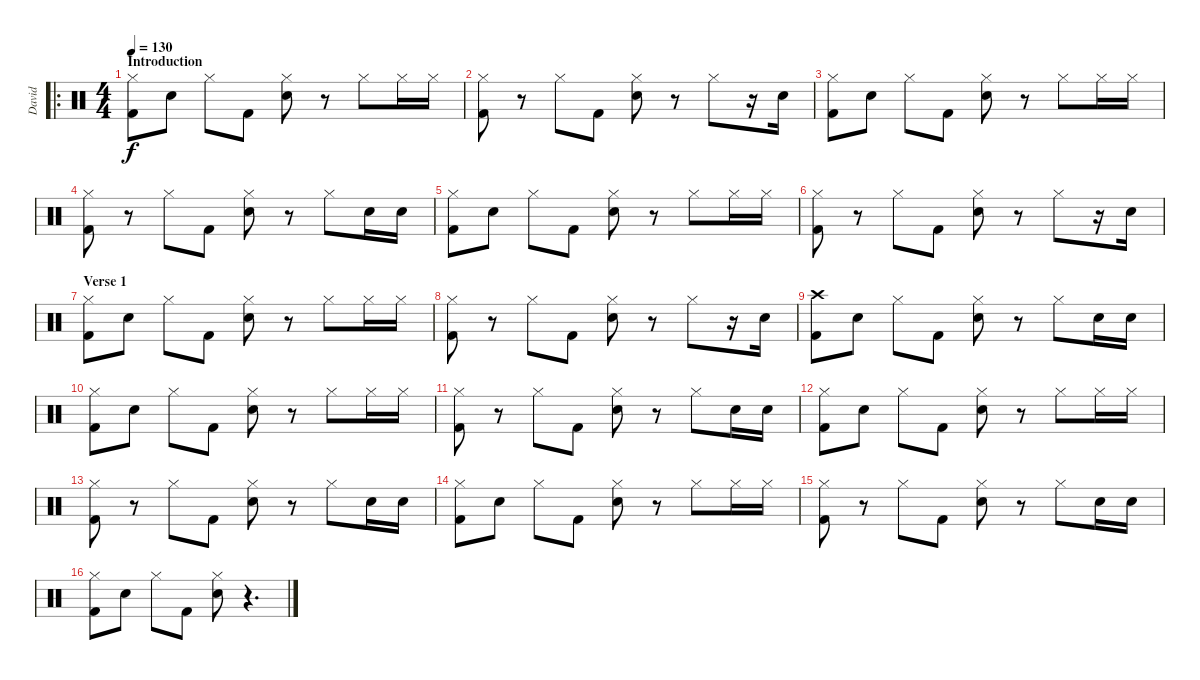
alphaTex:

\track ("David" "David") {instrument percussion}
\staff {score}
\articulation defaults
\ro
\ts (4 4)
\section ("" "Introduction")
\tempo 130
\clef neutral
\ks c
("Hi-Hat (closed)" "Kick (hit) 2").8{dy f} "Snare (hit) 2".8 "Hi-Hat (closed)".8 "Kick (hit) 2".8 ("Hi-Hat (closed)" "Snare (hit) 2").8 r.8 "Hi-Hat (closed)".8 "Hi-Hat (closed)".16 "Hi-Hat (closed)".16 |
("Hi-Hat (closed)" "Kick (hit) 2").8 r.8 "Hi-Hat (closed)".8 "Kick (hit) 2".8 ("Hi-Hat (closed)" "Snare (hit) 2").8 r.8 "Hi-Hat (closed)".8 r.16 "Snare (hit) 2".16 |
("Hi-Hat (closed)" "Kick (hit) 2").8 "Snare (hit) 2".8 "Hi-Hat (closed)".8 "Kick (hit) 2".8 ("Hi-Hat (closed)" "Snare (hit) 2").8 r.8 "Hi-Hat (closed)".8 "Hi-Hat (closed)".16 "Hi-Hat (closed)".16 |
("Hi-Hat (closed)" "Kick (hit) 2").8 r.8 "Hi-Hat (closed)".8 "Kick (hit) 2".8 ("Hi-Hat (closed)" "Snare (hit) 2").8 r.8 "Hi-Hat (closed)".8 "Snare (hit) 2".16 "Snare (hit) 2".16 |
("Hi-Hat (closed)" "Kick (hit) 2").8 "Snare (hit) 2".8 "Hi-Hat (closed)".8 "Kick (hit) 2".8 ("Hi-Hat (closed)" "Snare (hit) 2").8 r.8 "Hi-Hat (closed)".8 "Hi-Hat (closed)".16 "Hi-Hat (closed)".16 |
("Hi-Hat (closed)" "Kick (hit) 2").8 r.8 "Hi-Hat (closed)".8 "Kick (hit) 2".8 ("Hi-Hat (closed)" "Snare (hit) 2").8 r.8 "Hi-Hat (closed)".8 r.16 "Snare (hit) 2".16 |
\section ("" "Verse 1")
("Hi-Hat (closed)" "Kick (hit) 2").8 "Snare (hit) 2".8 "Hi-Hat (closed)".8 "Kick (hit) 2".8 ("Hi-Hat (closed)" "Snare (hit) 2").8 r.8 "Hi-Hat (closed)".8 "Hi-Hat (closed)".16 "Hi-Hat (closed)".16 |
("Hi-Hat (closed)" "Kick (hit) 2").8 r.8 "Hi-Hat (closed)".8 "Kick (hit) 2".8 ("Hi-Hat (closed)" "Snare (hit) 2").8 r.8 "Hi-Hat (closed)".8 r.16 "Snare (hit) 2".16 |
("Crash high (hit)" "Kick (hit) 2").8 "Snare (hit) 2".8 "Hi-Hat (closed)".8 "Kick (hit) 2".8 ("Hi-Hat (closed)" "Snare (hit) 2").8 r.8 "Hi-Hat (closed)".8 "Snare (hit) 2".16 "Snare (hit) 2".16 |
("Hi-Hat (closed)" "Kick (hit) 2").8 "Snare (hit) 2".8 "Hi-Hat (closed)".8 "Kick (hit) 2".8 ("Hi-Hat (closed)" "Snare (hit) 2").8 r.8 "Hi-Hat (closed)".8 "Hi-Hat (closed)".16 "Hi-Hat (closed)".16 |
("Hi-Hat (closed)" "Kick (hit) 2").8 r.8 "Hi-Hat (closed)".8 "Kick (hit) 2".8 ("Hi-Hat (closed)" "Snare (hit) 2").8 r.8 "Hi-Hat (closed)".8 "Snare (hit) 2".16 "Snare (hit) 2".16 |
("Hi-Hat (closed)" "Kick (hit) 2").8 "Snare (hit) 2".8 "Hi-Hat (closed)".8 "Kick (hit) 2".8 ("Hi-Hat (closed)" "Snare (hit) 2").8 r.8 "Hi-Hat (closed)".8 "Hi-Hat (closed)".16 "Hi-Hat (closed)".16 |
("Hi-Hat (closed)" "Kick (hit) 2").8 r.8 "Hi-Hat (closed)".8 "Kick (hit) 2".8 ("Hi-Hat (closed)" "Snare (hit) 2").8 r.8 "Hi-Hat (closed)".8 "Snare (hit) 2".16 "Snare (hit) 2".16 |
("Hi-Hat (closed)" "Kick (hit) 2").8 "Snare (hit) 2".8 "Hi-Hat (closed)".8 "Kick (hit) 2".8 ("Hi-Hat (closed)" "Snare (hit) 2").8 r.8 "Hi-Hat (closed)".8 "Hi-Hat (closed)".16 "Hi-Hat (closed)".16 |
("Hi-Hat (closed)" "Kick (hit) 2").8 r.8 "Hi-Hat (closed)".8 "Kick (hit) 2".8 ("Hi-Hat (closed)" "Snare (hit) 2").8 r.8 "Hi-Hat (closed)".8 "Snare (hit) 2".16 "Snare (hit) 2".16 |
("Hi-Hat (closed)" "Kick (hit) 2").8 "Snare (hit) 2".8 "Hi-Hat (closed)".8 "Kick (hit) 2".8 ("Hi-Hat (closed)" "Snare (hit) 2").8 r.4{d}
